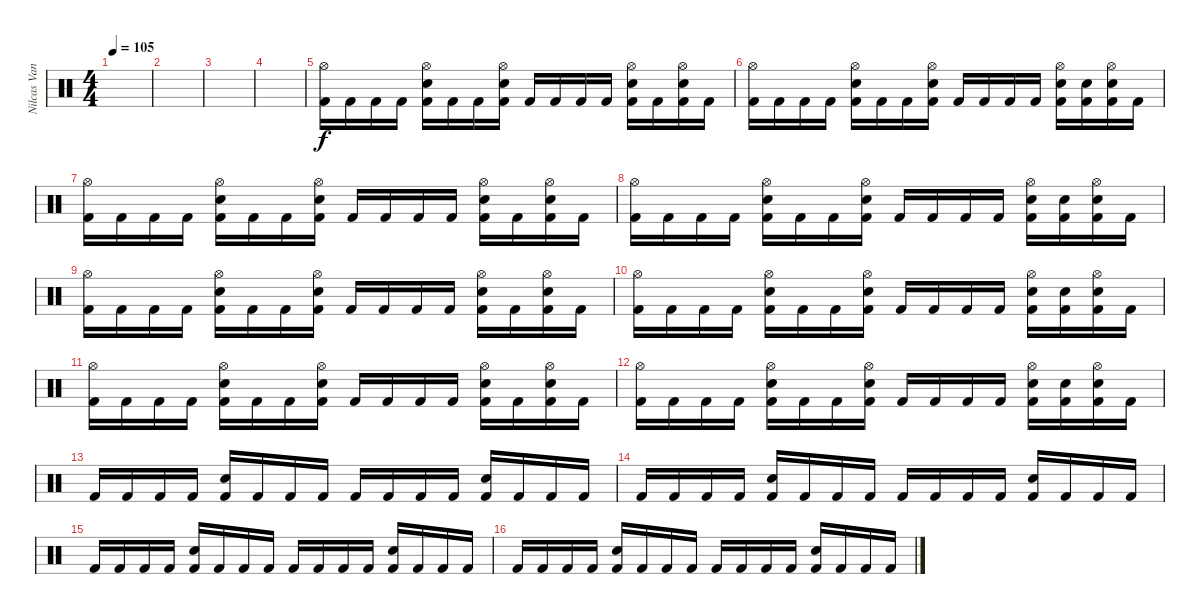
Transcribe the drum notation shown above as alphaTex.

\track ("Nilcas Vant" "Nilcas Van") {instrument percussion}
\staff {score}
\articulation defaults
\ts (4 4)
\tempo 105
\clef neutral
\ks c
|
|
|
|
("Hi-Hat (open)" "Kick (hit) 2").16 "Kick (hit) 2".16 "Kick (hit) 2".16 "Kick (hit) 2".16 ("Hi-Hat (open)" "Electric Snare (hit)" "Kick (hit) 2").16 "Kick (hit) 2".16 "Kick (hit) 2".16 ("Hi-Hat (open)" "Electric Snare (hit)" "Kick (hit) 2").16 "Kick (hit) 2".16 "Kick (hit) 2".16 "Kick (hit) 2".16 "Kick (hit) 2".16 ("Hi-Hat (open)" "Electric Snare (hit)" "Kick (hit) 2").16 "Kick (hit) 2".16 ("Hi-Hat (open)" "Electric Snare (hit)" "Kick (hit) 2").16 "Kick (hit) 2".16 |
("Hi-Hat (open)" "Kick (hit) 2").16 "Kick (hit) 2".16 "Kick (hit) 2".16 "Kick (hit) 2".16 ("Hi-Hat (open)" "Electric Snare (hit)" "Kick (hit) 2").16 "Kick (hit) 2".16 "Kick (hit) 2".16 ("Hi-Hat (open)" "Electric Snare (hit)" "Kick (hit) 2").16 "Kick (hit) 2".16 "Kick (hit) 2".16 "Kick (hit) 2".16 "Kick (hit) 2".16 ("Hi-Hat (open)" "Electric Snare (hit)" "Kick (hit) 2").16 ("Electric Snare (hit)" "Kick (hit) 2").16 ("Hi-Hat (open)" "Electric Snare (hit)" "Kick (hit) 2").16 "Kick (hit) 2".16 |
("Hi-Hat (open)" "Kick (hit) 2").16 "Kick (hit) 2".16 "Kick (hit) 2".16 "Kick (hit) 2".16 ("Hi-Hat (open)" "Electric Snare (hit)" "Kick (hit) 2").16 "Kick (hit) 2".16 "Kick (hit) 2".16 ("Hi-Hat (open)" "Electric Snare (hit)" "Kick (hit) 2").16 "Kick (hit) 2".16 "Kick (hit) 2".16 "Kick (hit) 2".16 "Kick (hit) 2".16 ("Hi-Hat (open)" "Electric Snare (hit)" "Kick (hit) 2").16 "Kick (hit) 2".16 ("Hi-Hat (open)" "Electric Snare (hit)" "Kick (hit) 2").16 "Kick (hit) 2".16 |
("Hi-Hat (open)" "Kick (hit) 2").16 "Kick (hit) 2".16 "Kick (hit) 2".16 "Kick (hit) 2".16 ("Hi-Hat (open)" "Electric Snare (hit)" "Kick (hit) 2").16 "Kick (hit) 2".16 "Kick (hit) 2".16 ("Hi-Hat (open)" "Electric Snare (hit)" "Kick (hit) 2").16 "Kick (hit) 2".16 "Kick (hit) 2".16 "Kick (hit) 2".16 "Kick (hit) 2".16 ("Hi-Hat (open)" "Electric Snare (hit)" "Kick (hit) 2").16 ("Electric Snare (hit)" "Kick (hit) 2").16 ("Hi-Hat (open)" "Electric Snare (hit)" "Kick (hit) 2").16 "Kick (hit) 2".16 |
("Hi-Hat (open)" "Kick (hit) 2").16 "Kick (hit) 2".16 "Kick (hit) 2".16 "Kick (hit) 2".16 ("Hi-Hat (open)" "Electric Snare (hit)" "Kick (hit) 2").16 "Kick (hit) 2".16 "Kick (hit) 2".16 ("Hi-Hat (open)" "Electric Snare (hit)" "Kick (hit) 2").16 "Kick (hit) 2".16 "Kick (hit) 2".16 "Kick (hit) 2".16 "Kick (hit) 2".16 ("Hi-Hat (open)" "Electric Snare (hit)" "Kick (hit) 2").16 "Kick (hit) 2".16 ("Hi-Hat (open)" "Electric Snare (hit)" "Kick (hit) 2").16 "Kick (hit) 2".16 |
("Hi-Hat (open)" "Kick (hit) 2").16 "Kick (hit) 2".16 "Kick (hit) 2".16 "Kick (hit) 2".16 ("Hi-Hat (open)" "Electric Snare (hit)" "Kick (hit) 2").16 "Kick (hit) 2".16 "Kick (hit) 2".16 ("Hi-Hat (open)" "Electric Snare (hit)" "Kick (hit) 2").16 "Kick (hit) 2".16 "Kick (hit) 2".16 "Kick (hit) 2".16 "Kick (hit) 2".16 ("Hi-Hat (open)" "Electric Snare (hit)" "Kick (hit) 2").16 ("Electric Snare (hit)" "Kick (hit) 2").16 ("Hi-Hat (open)" "Electric Snare (hit)" "Kick (hit) 2").16 "Kick (hit) 2".16 |
("Hi-Hat (open)" "Kick (hit) 2").16 "Kick (hit) 2".16 "Kick (hit) 2".16 "Kick (hit) 2".16 ("Hi-Hat (open)" "Electric Snare (hit)" "Kick (hit) 2").16 "Kick (hit) 2".16 "Kick (hit) 2".16 ("Hi-Hat (open)" "Electric Snare (hit)" "Kick (hit) 2").16 "Kick (hit) 2".16 "Kick (hit) 2".16 "Kick (hit) 2".16 "Kick (hit) 2".16 ("Hi-Hat (open)" "Electric Snare (hit)" "Kick (hit) 2").16 "Kick (hit) 2".16 ("Hi-Hat (open)" "Electric Snare (hit)" "Kick (hit) 2").16 "Kick (hit) 2".16 |
("Hi-Hat (open)" "Kick (hit) 2").16 "Kick (hit) 2".16 "Kick (hit) 2".16 "Kick (hit) 2".16 ("Hi-Hat (open)" "Electric Snare (hit)" "Kick (hit) 2").16 "Kick (hit) 2".16 "Kick (hit) 2".16 ("Hi-Hat (open)" "Electric Snare (hit)" "Kick (hit) 2").16 "Kick (hit) 2".16 "Kick (hit) 2".16 "Kick (hit) 2".16 "Kick (hit) 2".16 ("Hi-Hat (open)" "Electric Snare (hit)" "Kick (hit) 2").16 ("Electric Snare (hit)" "Kick (hit) 2").16 ("Hi-Hat (open)" "Electric Snare (hit)" "Kick (hit) 2").16 "Kick (hit) 2".16 |
"Kick (hit) 2".16 "Kick (hit) 2".16 "Kick (hit) 2".16 "Kick (hit) 2".16 ("Electric Snare (hit)" "Kick (hit) 2").16 "Kick (hit) 2".16 "Kick (hit) 2".16 "Kick (hit) 2".16 "Kick (hit) 2".16 "Kick (hit) 2".16 "Kick (hit) 2".16 "Kick (hit) 2".16 ("Electric Snare (hit)" "Kick (hit) 2").16 "Kick (hit) 2".16 "Kick (hit) 2".16 "Kick (hit) 2".16 |
"Kick (hit) 2".16 "Kick (hit) 2".16 "Kick (hit) 2".16 "Kick (hit) 2".16 ("Electric Snare (hit)" "Kick (hit) 2").16 "Kick (hit) 2".16 "Kick (hit) 2".16 "Kick (hit) 2".16 "Kick (hit) 2".16 "Kick (hit) 2".16 "Kick (hit) 2".16 "Kick (hit) 2".16 ("Electric Snare (hit)" "Kick (hit) 2").16 "Kick (hit) 2".16 "Kick (hit) 2".16 "Kick (hit) 2".16 |
"Kick (hit) 2".16 "Kick (hit) 2".16 "Kick (hit) 2".16 "Kick (hit) 2".16 ("Electric Snare (hit)" "Kick (hit) 2").16 "Kick (hit) 2".16 "Kick (hit) 2".16 "Kick (hit) 2".16 "Kick (hit) 2".16 "Kick (hit) 2".16 "Kick (hit) 2".16 "Kick (hit) 2".16 ("Electric Snare (hit)" "Kick (hit) 2").16 "Kick (hit) 2".16 "Kick (hit) 2".16 "Kick (hit) 2".16 |
"Kick (hit) 2".16 "Kick (hit) 2".16 "Kick (hit) 2".16 "Kick (hit) 2".16 ("Electric Snare (hit)" "Kick (hit) 2").16 "Kick (hit) 2".16 "Kick (hit) 2".16 "Kick (hit) 2".16 "Kick (hit) 2".16 "Kick (hit) 2".16 "Kick (hit) 2".16 "Kick (hit) 2".16 ("Electric Snare (hit)" "Kick (hit) 2").16 "Kick (hit) 2".16 "Kick (hit) 2".16 "Kick (hit) 2".16
